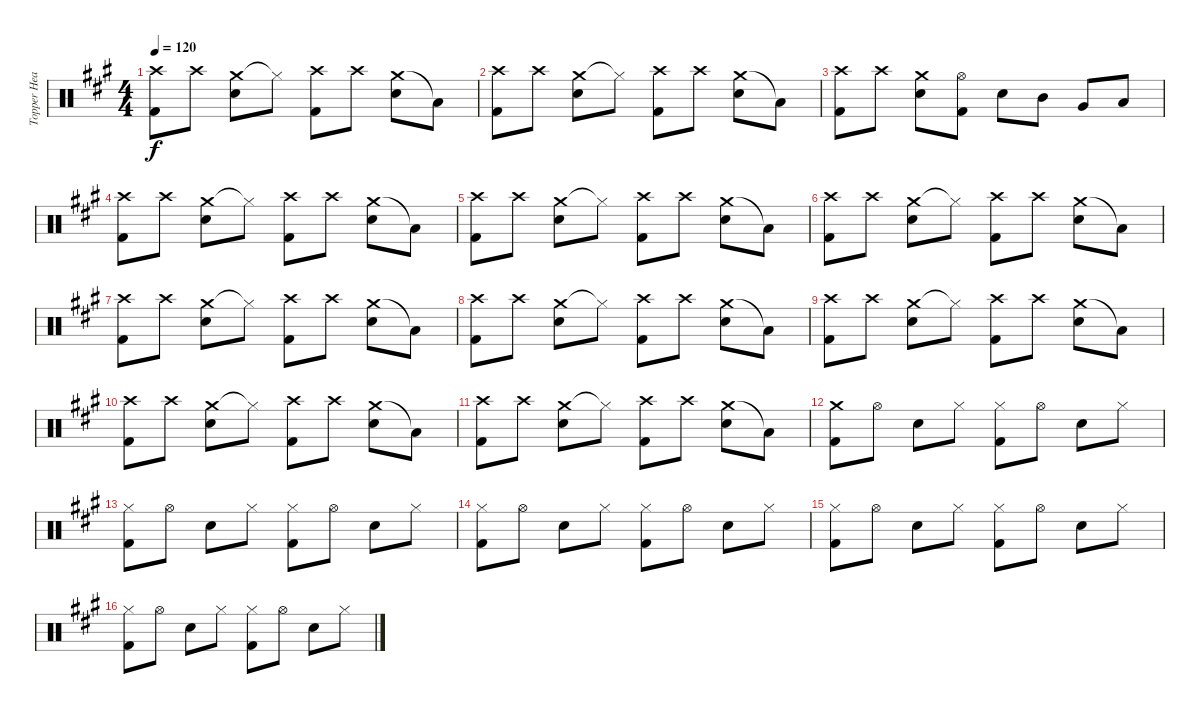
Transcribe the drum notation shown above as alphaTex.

\track ("Topper Headon - Drums" "Topper Hea") {instrument percussion}
\staff {score}
\articulation defaults
\ts (4 4)
\tempo 120
\clef neutral
\ks a
("Crash high (hit)" "Kick (hit) 2").8{dy f} "Crash high (hit)".8 ("Crash medium (hit)" "Electric Snare (hit)").8 "Hi-Hat (closed)"{t}.8 ("Crash high (hit)" "Kick (hit) 2").8 "Crash high (hit)".8 ("Crash medium (hit)" "Electric Snare (hit)").8 "Low Floor Tom (hit)"{t}.8 |
("Crash high (hit)" "Kick (hit) 2").8 "Crash high (hit)".8 ("Crash medium (hit)" "Electric Snare (hit)").8 "Hi-Hat (closed)"{t}.8 ("Crash high (hit)" "Kick (hit) 2").8 "Crash high (hit)".8 ("Crash medium (hit)" "Electric Snare (hit)").8 "Low Floor Tom (hit)"{t}.8 |
("Crash high (hit)" "Kick (hit) 2").8 "Crash high (hit)".8 ("Crash medium (hit)" "Electric Snare (hit)").8 ("Hi-Hat (open)" "Kick (hit) 2").8 "Electric Snare (hit)".8 "Mid Tom (hit)".8 "Very Low Tom (hit)".8 "Low Floor Tom (hit)".8 |
("Crash high (hit)" "Kick (hit) 2").8 "Crash high (hit)".8 ("Crash medium (hit)" "Electric Snare (hit)").8 "Hi-Hat (closed)"{t}.8 ("Crash high (hit)" "Kick (hit) 2").8 "Crash high (hit)".8 ("Crash medium (hit)" "Electric Snare (hit)").8 "Low Floor Tom (hit)"{t}.8 |
("Crash high (hit)" "Kick (hit) 2").8 "Crash high (hit)".8 ("Crash medium (hit)" "Electric Snare (hit)").8 "Hi-Hat (closed)"{t}.8 ("Crash high (hit)" "Kick (hit) 2").8 "Crash high (hit)".8 ("Crash medium (hit)" "Electric Snare (hit)").8 "Low Floor Tom (hit)"{t}.8 |
("Crash high (hit)" "Kick (hit) 2").8 "Crash high (hit)".8 ("Crash medium (hit)" "Electric Snare (hit)").8 "Hi-Hat (closed)"{t}.8 ("Crash high (hit)" "Kick (hit) 2").8 "Crash high (hit)".8 ("Crash medium (hit)" "Electric Snare (hit)").8 "Low Floor Tom (hit)"{t}.8 |
("Crash high (hit)" "Kick (hit) 2").8 "Crash high (hit)".8 ("Crash medium (hit)" "Electric Snare (hit)").8 "Hi-Hat (closed)"{t}.8 ("Crash high (hit)" "Kick (hit) 2").8 "Crash high (hit)".8 ("Crash medium (hit)" "Electric Snare (hit)").8 "Low Floor Tom (hit)"{t}.8 |
("Crash high (hit)" "Kick (hit) 2").8 "Crash high (hit)".8 ("Crash medium (hit)" "Electric Snare (hit)").8 "Hi-Hat (closed)"{t}.8 ("Crash high (hit)" "Kick (hit) 2").8 "Crash high (hit)".8 ("Crash medium (hit)" "Electric Snare (hit)").8 "Low Floor Tom (hit)"{t}.8 |
("Crash high (hit)" "Kick (hit) 2").8 "Crash high (hit)".8 ("Crash medium (hit)" "Electric Snare (hit)").8 "Hi-Hat (closed)"{t}.8 ("Crash high (hit)" "Kick (hit) 2").8 "Crash high (hit)".8 ("Crash medium (hit)" "Electric Snare (hit)").8 "Low Floor Tom (hit)"{t}.8 |
("Crash high (hit)" "Kick (hit) 2").8 "Crash high (hit)".8 ("Crash medium (hit)" "Electric Snare (hit)").8 "Hi-Hat (closed)"{t}.8 ("Crash high (hit)" "Kick (hit) 2").8 "Crash high (hit)".8 ("Crash medium (hit)" "Electric Snare (hit)").8 "Low Floor Tom (hit)"{t}.8 |
("Crash high (hit)" "Kick (hit) 2").8 "Crash high (hit)".8 ("Crash medium (hit)" "Electric Snare (hit)").8 "Hi-Hat (closed)"{t}.8 ("Crash high (hit)" "Kick (hit) 2").8 "Crash high (hit)".8 ("Crash medium (hit)" "Electric Snare (hit)").8 "Low Floor Tom (hit)"{t}.8 |
("Crash medium (hit)" "Kick (hit) 2").8 "Hi-Hat (open)".8 "Electric Snare (hit)".8 "Hi-Hat (closed)".8 ("Hi-Hat (closed)" "Kick (hit) 2").8 "Hi-Hat (open)".8 "Electric Snare (hit)".8 "Hi-Hat (closed)".8 |
("Hi-Hat (closed)" "Kick (hit) 2").8 "Hi-Hat (open)".8 "Electric Snare (hit)".8 "Hi-Hat (closed)".8 ("Hi-Hat (closed)" "Kick (hit) 2").8 "Hi-Hat (open)".8 "Electric Snare (hit)".8 "Hi-Hat (closed)".8 |
("Hi-Hat (closed)" "Kick (hit) 2").8 "Hi-Hat (open)".8 "Electric Snare (hit)".8 "Hi-Hat (closed)".8 ("Hi-Hat (closed)" "Kick (hit) 2").8 "Hi-Hat (open)".8 "Electric Snare (hit)".8 "Hi-Hat (closed)".8 |
("Hi-Hat (closed)" "Kick (hit) 2").8 "Hi-Hat (open)".8 "Electric Snare (hit)".8 "Hi-Hat (closed)".8 ("Hi-Hat (closed)" "Kick (hit) 2").8 "Hi-Hat (open)".8 "Electric Snare (hit)".8 "Hi-Hat (closed)".8 |
("Hi-Hat (closed)" "Kick (hit) 2").8 "Hi-Hat (open)".8 "Electric Snare (hit)".8 "Hi-Hat (closed)".8 ("Hi-Hat (closed)" "Kick (hit) 2").8 "Hi-Hat (open)".8 "Electric Snare (hit)".8 "Hi-Hat (closed)".8
